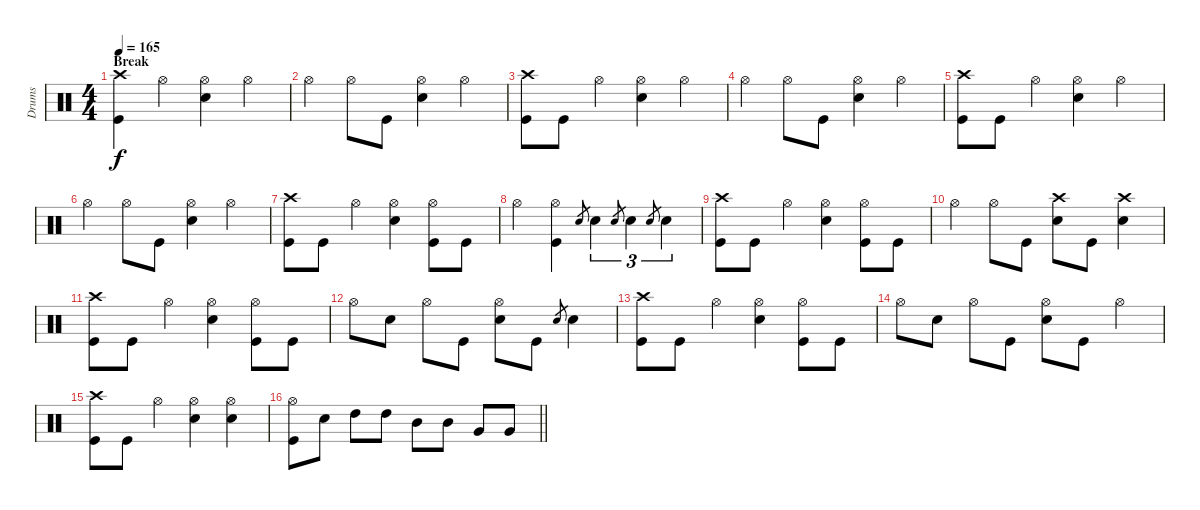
\track ("Drums" "Drums") {instrument percussion}
\staff {score}
\articulation defaults
\ts (4 4)
\section ("" "Break")
\tempo 165
\clef neutral
\ks c
("Crash high (hit)" "Kick (hit)").4{dy f} "Hi-Hat (open)".4 ("Hi-Hat (open)" "Snare (hit) 2").4 "Hi-Hat (open)".4 |
"Hi-Hat (open)".4 "Hi-Hat (open)".8 "Kick (hit)".8 ("Hi-Hat (open)" "Snare (hit) 2").4 "Hi-Hat (open)".4 |
("Crash high (hit)" "Kick (hit)").8 "Kick (hit)".8 "Hi-Hat (open)".4 ("Hi-Hat (open)" "Snare (hit) 2").4 "Hi-Hat (open)".4 |
"Hi-Hat (open)".4 "Hi-Hat (open)".8 "Kick (hit)".8 ("Hi-Hat (open)" "Snare (hit) 2").4 "Hi-Hat (open)".4 |
("Crash high (hit)" "Kick (hit)").8 "Kick (hit)".8 "Hi-Hat (open)".4 ("Hi-Hat (open)" "Snare (hit) 2").4 "Hi-Hat (open)".4 |
"Hi-Hat (open)".4 "Hi-Hat (open)".8 "Kick (hit)".8 ("Hi-Hat (open)" "Snare (hit) 2").4 "Hi-Hat (open)".4 |
("Crash high (hit)" "Kick (hit)").8 "Kick (hit)".8 "Hi-Hat (open)".4 ("Hi-Hat (open)" "Snare (hit) 2").4 ("Hi-Hat (open)" "Kick (hit)").8 "Kick (hit)".8 |
"Hi-Hat (open)".4 ("Hi-Hat (open)" "Kick (hit)").4 "Snare (hit) 2".8{gr} "Snare (hit) 2".4{tu (3 2)} "Snare (hit) 2".8{gr} "Snare (hit) 2".4{tu (3 2)} "Snare (hit) 2".8{gr} "Snare (hit) 2".4{tu (3 2)} |
("Crash high (hit)" "Kick (hit)").8 "Kick (hit)".8 "Hi-Hat (open)".4 ("Hi-Hat (open)" "Snare (hit) 2").4 ("Hi-Hat (open)" "Kick (hit)").8 "Kick (hit)".8 |
"Hi-Hat (open)".4 "Hi-Hat (open)".8 "Kick (hit)".8 ("Crash high (hit)" "Snare (hit) 2").8 "Kick (hit)".8 ("Crash high (hit)" "Snare (hit) 2").4 |
("Crash high (hit)" "Kick (hit)").8 "Kick (hit)".8 "Hi-Hat (open)".4 ("Hi-Hat (open)" "Snare (hit) 2").4 ("Hi-Hat (open)" "Kick (hit)").8 "Kick (hit)".8 |
"Hi-Hat (open)".8 "Snare (hit) 2".8 "Hi-Hat (open)".8 "Kick (hit)".8 ("Hi-Hat (open)" "Snare (hit) 2").8 "Kick (hit)".8 "Snare (hit) 2".8{gr} "Snare (hit) 2".4 |
("Crash high (hit)" "Kick (hit)").8 "Kick (hit)".8 "Hi-Hat (open)".4 ("Hi-Hat (open)" "Snare (hit) 2").4 ("Hi-Hat (open)" "Kick (hit)").8 "Kick (hit)".8 |
"Hi-Hat (open)".8 "Snare (hit) 2".8 "Hi-Hat (open)".8 "Kick (hit)".8 ("Hi-Hat (open)" "Snare (hit) 2").8 "Kick (hit)".8 "Hi-Hat (open)".4 |
("Crash high (hit)" "Kick (hit)").8 "Kick (hit)".8 "Hi-Hat (open)".4 ("Hi-Hat (open)" "Snare (hit) 2").4 ("Hi-Hat (open)" "Snare (hit) 2").4 |
\barLineRight lightlight
("Hi-Hat (open)" "Kick (hit)").8 "Snare (hit) 2".8 "High Tom (hit)".8 "High Tom (hit)".8 "Mid Tom (hit)".8 "Mid Tom (hit)".8 "Very Low Tom (hit)".8 "Very Low Tom (hit)".8
